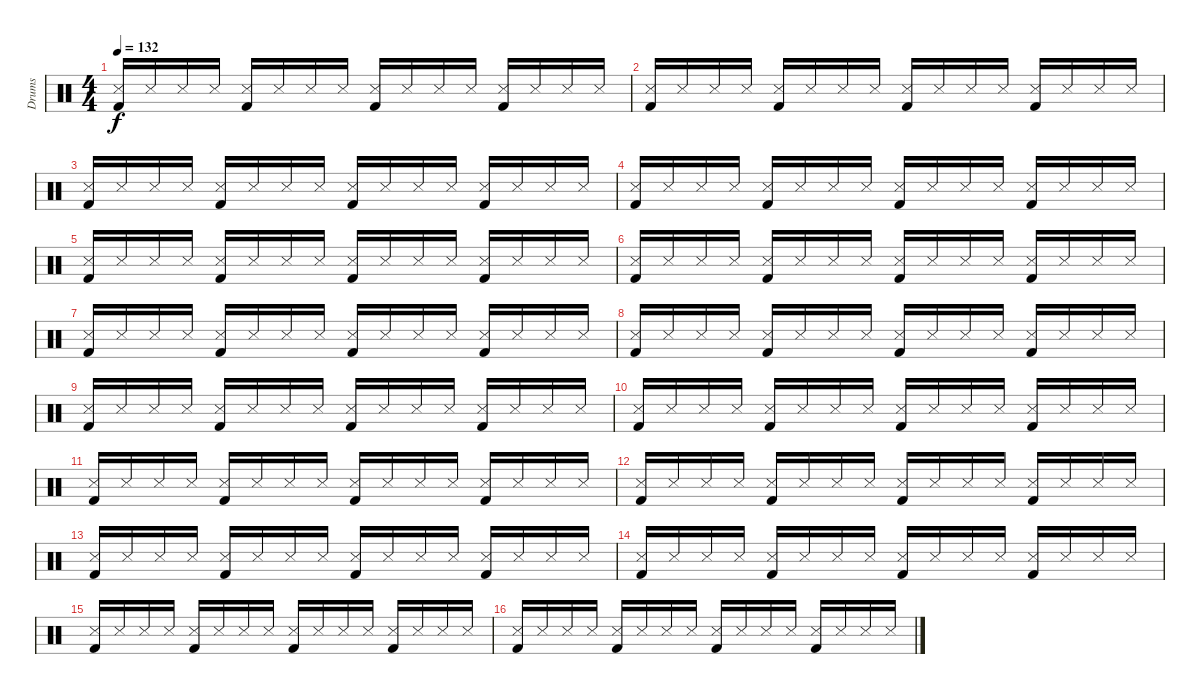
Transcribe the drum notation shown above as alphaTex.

\track ("Drums" "Drums") {instrument percussion}
\staff {score}
\articulation defaults
\ts (4 4)
\tempo 132
\clef neutral
\ks c
("Snare (side stick) 3" "Kick (hit) 2").16{dy f} "Snare (side stick) 3".16 "Snare (side stick) 3".16 "Snare (side stick) 3".16 ("Snare (side stick) 3" "Kick (hit) 2").16 "Snare (side stick) 3".16 "Snare (side stick) 3".16 "Snare (side stick) 3".16 ("Snare (side stick) 3" "Kick (hit) 2").16 "Snare (side stick) 3".16 "Snare (side stick) 3".16 "Snare (side stick) 3".16 ("Snare (side stick) 3" "Kick (hit) 2").16 "Snare (side stick) 3".16 "Snare (side stick) 3".16 "Snare (side stick) 3".16 |
("Snare (side stick) 3" "Kick (hit) 2").16 "Snare (side stick) 3".16 "Snare (side stick) 3".16 "Snare (side stick) 3".16 ("Snare (side stick) 3" "Kick (hit) 2").16 "Snare (side stick) 3".16 "Snare (side stick) 3".16 "Snare (side stick) 3".16 ("Snare (side stick) 3" "Kick (hit) 2").16 "Snare (side stick) 3".16 "Snare (side stick) 3".16 "Snare (side stick) 3".16 ("Snare (side stick) 3" "Kick (hit) 2").16 "Snare (side stick) 3".16 "Snare (side stick) 3".16 "Snare (side stick) 3".16 |
("Snare (side stick) 3" "Kick (hit) 2").16 "Snare (side stick) 3".16 "Snare (side stick) 3".16 "Snare (side stick) 3".16 ("Snare (side stick) 3" "Kick (hit) 2").16 "Snare (side stick) 3".16 "Snare (side stick) 3".16 "Snare (side stick) 3".16 ("Snare (side stick) 3" "Kick (hit) 2").16 "Snare (side stick) 3".16 "Snare (side stick) 3".16 "Snare (side stick) 3".16 ("Snare (side stick) 3" "Kick (hit) 2").16 "Snare (side stick) 3".16 "Snare (side stick) 3".16 "Snare (side stick) 3".16 |
("Snare (side stick) 3" "Kick (hit) 2").16 "Snare (side stick) 3".16 "Snare (side stick) 3".16 "Snare (side stick) 3".16 ("Snare (side stick) 3" "Kick (hit) 2").16 "Snare (side stick) 3".16 "Snare (side stick) 3".16 "Snare (side stick) 3".16 ("Snare (side stick) 3" "Kick (hit) 2").16 "Snare (side stick) 3".16 "Snare (side stick) 3".16 "Snare (side stick) 3".16 ("Snare (side stick) 3" "Kick (hit) 2").16 "Snare (side stick) 3".16 "Snare (side stick) 3".16 "Snare (side stick) 3".16 |
("Snare (side stick) 3" "Kick (hit) 2").16 "Snare (side stick) 3".16 "Snare (side stick) 3".16 "Snare (side stick) 3".16 ("Snare (side stick) 3" "Kick (hit) 2").16 "Snare (side stick) 3".16 "Snare (side stick) 3".16 "Snare (side stick) 3".16 ("Snare (side stick) 3" "Kick (hit) 2").16 "Snare (side stick) 3".16 "Snare (side stick) 3".16 "Snare (side stick) 3".16 ("Snare (side stick) 3" "Kick (hit) 2").16 "Snare (side stick) 3".16 "Snare (side stick) 3".16 "Snare (side stick) 3".16 |
("Snare (side stick) 3" "Kick (hit) 2").16 "Snare (side stick) 3".16 "Snare (side stick) 3".16 "Snare (side stick) 3".16 ("Snare (side stick) 3" "Kick (hit) 2").16 "Snare (side stick) 3".16 "Snare (side stick) 3".16 "Snare (side stick) 3".16 ("Snare (side stick) 3" "Kick (hit) 2").16 "Snare (side stick) 3".16 "Snare (side stick) 3".16 "Snare (side stick) 3".16 ("Snare (side stick) 3" "Kick (hit) 2").16 "Snare (side stick) 3".16 "Snare (side stick) 3".16 "Snare (side stick) 3".16 |
("Snare (side stick) 3" "Kick (hit) 2").16 "Snare (side stick) 3".16 "Snare (side stick) 3".16 "Snare (side stick) 3".16 ("Snare (side stick) 3" "Kick (hit) 2").16 "Snare (side stick) 3".16 "Snare (side stick) 3".16 "Snare (side stick) 3".16 ("Snare (side stick) 3" "Kick (hit) 2").16 "Snare (side stick) 3".16 "Snare (side stick) 3".16 "Snare (side stick) 3".16 ("Snare (side stick) 3" "Kick (hit) 2").16 "Snare (side stick) 3".16 "Snare (side stick) 3".16 "Snare (side stick) 3".16 |
("Snare (side stick) 3" "Kick (hit) 2").16 "Snare (side stick) 3".16 "Snare (side stick) 3".16 "Snare (side stick) 3".16 ("Snare (side stick) 3" "Kick (hit) 2").16 "Snare (side stick) 3".16 "Snare (side stick) 3".16 "Snare (side stick) 3".16 ("Snare (side stick) 3" "Kick (hit) 2").16 "Snare (side stick) 3".16 "Snare (side stick) 3".16 "Snare (side stick) 3".16 ("Snare (side stick) 3" "Kick (hit) 2").16 "Snare (side stick) 3".16 "Snare (side stick) 3".16 "Snare (side stick) 3".16 |
("Snare (side stick) 3" "Kick (hit) 2").16 "Snare (side stick) 3".16 "Snare (side stick) 3".16 "Snare (side stick) 3".16 ("Snare (side stick) 3" "Kick (hit) 2").16 "Snare (side stick) 3".16 "Snare (side stick) 3".16 "Snare (side stick) 3".16 ("Snare (side stick) 3" "Kick (hit) 2").16 "Snare (side stick) 3".16 "Snare (side stick) 3".16 "Snare (side stick) 3".16 ("Snare (side stick) 3" "Kick (hit) 2").16 "Snare (side stick) 3".16 "Snare (side stick) 3".16 "Snare (side stick) 3".16 |
("Snare (side stick) 3" "Kick (hit) 2").16 "Snare (side stick) 3".16 "Snare (side stick) 3".16 "Snare (side stick) 3".16 ("Snare (side stick) 3" "Kick (hit) 2").16 "Snare (side stick) 3".16 "Snare (side stick) 3".16 "Snare (side stick) 3".16 ("Snare (side stick) 3" "Kick (hit) 2").16 "Snare (side stick) 3".16 "Snare (side stick) 3".16 "Snare (side stick) 3".16 ("Snare (side stick) 3" "Kick (hit) 2").16 "Snare (side stick) 3".16 "Snare (side stick) 3".16 "Snare (side stick) 3".16 |
("Snare (side stick) 3" "Kick (hit) 2").16 "Snare (side stick) 3".16 "Snare (side stick) 3".16 "Snare (side stick) 3".16 ("Snare (side stick) 3" "Kick (hit) 2").16 "Snare (side stick) 3".16 "Snare (side stick) 3".16 "Snare (side stick) 3".16 ("Snare (side stick) 3" "Kick (hit) 2").16 "Snare (side stick) 3".16 "Snare (side stick) 3".16 "Snare (side stick) 3".16 ("Snare (side stick) 3" "Kick (hit) 2").16 "Snare (side stick) 3".16 "Snare (side stick) 3".16 "Snare (side stick) 3".16 |
("Snare (side stick) 3" "Kick (hit) 2").16 "Snare (side stick) 3".16 "Snare (side stick) 3".16 "Snare (side stick) 3".16 ("Snare (side stick) 3" "Kick (hit) 2").16 "Snare (side stick) 3".16 "Snare (side stick) 3".16 "Snare (side stick) 3".16 ("Snare (side stick) 3" "Kick (hit) 2").16 "Snare (side stick) 3".16 "Snare (side stick) 3".16 "Snare (side stick) 3".16 ("Snare (side stick) 3" "Kick (hit) 2").16 "Snare (side stick) 3".16 "Snare (side stick) 3".16 "Snare (side stick) 3".16 |
("Snare (side stick) 3" "Kick (hit) 2").16 "Snare (side stick) 3".16 "Snare (side stick) 3".16 "Snare (side stick) 3".16 ("Snare (side stick) 3" "Kick (hit) 2").16 "Snare (side stick) 3".16 "Snare (side stick) 3".16 "Snare (side stick) 3".16 ("Snare (side stick) 3" "Kick (hit) 2").16 "Snare (side stick) 3".16 "Snare (side stick) 3".16 "Snare (side stick) 3".16 ("Snare (side stick) 3" "Kick (hit) 2").16 "Snare (side stick) 3".16 "Snare (side stick) 3".16 "Snare (side stick) 3".16 |
("Snare (side stick) 3" "Kick (hit) 2").16 "Snare (side stick) 3".16 "Snare (side stick) 3".16 "Snare (side stick) 3".16 ("Snare (side stick) 3" "Kick (hit) 2").16 "Snare (side stick) 3".16 "Snare (side stick) 3".16 "Snare (side stick) 3".16 ("Snare (side stick) 3" "Kick (hit) 2").16 "Snare (side stick) 3".16 "Snare (side stick) 3".16 "Snare (side stick) 3".16 ("Snare (side stick) 3" "Kick (hit) 2").16 "Snare (side stick) 3".16 "Snare (side stick) 3".16 "Snare (side stick) 3".16 |
("Snare (side stick) 3" "Kick (hit) 2").16 "Snare (side stick) 3".16 "Snare (side stick) 3".16 "Snare (side stick) 3".16 ("Snare (side stick) 3" "Kick (hit) 2").16 "Snare (side stick) 3".16 "Snare (side stick) 3".16 "Snare (side stick) 3".16 ("Snare (side stick) 3" "Kick (hit) 2").16 "Snare (side stick) 3".16 "Snare (side stick) 3".16 "Snare (side stick) 3".16 ("Snare (side stick) 3" "Kick (hit) 2").16 "Snare (side stick) 3".16 "Snare (side stick) 3".16 "Snare (side stick) 3".16 |
("Snare (side stick) 3" "Kick (hit) 2").16 "Snare (side stick) 3".16 "Snare (side stick) 3".16 "Snare (side stick) 3".16 ("Snare (side stick) 3" "Kick (hit) 2").16 "Snare (side stick) 3".16 "Snare (side stick) 3".16 "Snare (side stick) 3".16 ("Snare (side stick) 3" "Kick (hit) 2").16 "Snare (side stick) 3".16 "Snare (side stick) 3".16 "Snare (side stick) 3".16 ("Snare (side stick) 3" "Kick (hit) 2").16 "Snare (side stick) 3".16 "Snare (side stick) 3".16 "Snare (side stick) 3".16
